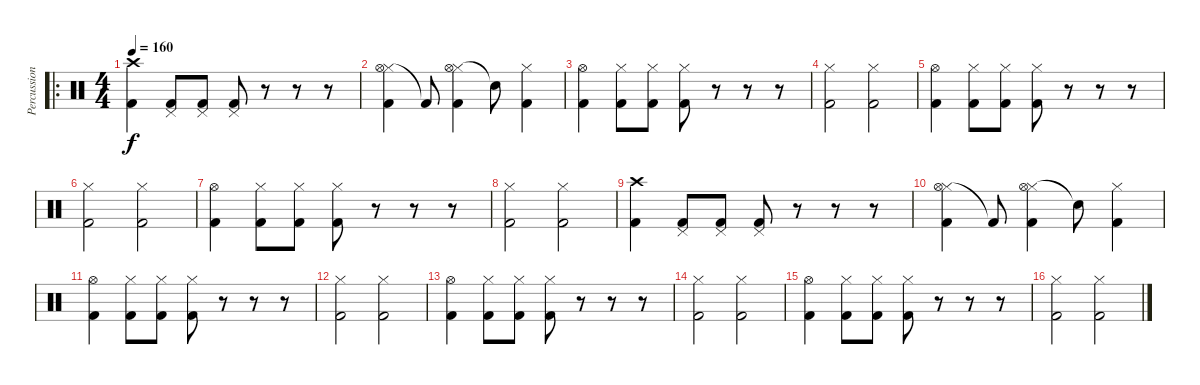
\track ("Percussion" "Percussion") {instrument percussion}
\staff {score}
\articulation defaults
\ro
\ts (4 4)
\tempo 160
\clef neutral
\ks c
("Crash high (hit)" "Kick (hit) 2").4{dy f} ("Pedal Hi-Hat (hit)" "Kick (hit) 2").8 ("Pedal Hi-Hat (hit)" "Kick (hit) 2").8 ("Pedal Hi-Hat (hit)" "Kick (hit) 2").8 r.8 r.8 r.8 |
("Hi-Hat (closed)" "Hi-Hat (open)" "Kick (hit) 2").4 "Kick (hit) 2"{t}.8 ("Hi-Hat (closed)" "Hi-Hat (open)" "Kick (hit) 2").4 "Snare (hit)"{t}.8 ("Hi-Hat (closed)" "Kick (hit) 2").4 |
("Hi-Hat (open)" "Kick (hit) 2").4 ("Hi-Hat (closed)" "Kick (hit) 2").8 ("Hi-Hat (closed)" "Kick (hit) 2").8 ("Hi-Hat (closed)" "Kick (hit) 2").8 r.8 r.8 r.8 |
("Hi-Hat (closed)" "Kick (hit) 2").2 ("Hi-Hat (closed)" "Kick (hit) 2").2 |
("Hi-Hat (open)" "Kick (hit) 2").4 ("Hi-Hat (closed)" "Kick (hit) 2").8 ("Hi-Hat (closed)" "Kick (hit) 2").8 ("Hi-Hat (closed)" "Kick (hit) 2").8 r.8 r.8 r.8 |
("Hi-Hat (closed)" "Kick (hit) 2").2 ("Hi-Hat (closed)" "Kick (hit) 2").2 |
("Hi-Hat (open)" "Kick (hit) 2").4 ("Hi-Hat (closed)" "Kick (hit) 2").8 ("Hi-Hat (closed)" "Kick (hit) 2").8 ("Hi-Hat (closed)" "Kick (hit) 2").8 r.8 r.8 r.8 |
("Hi-Hat (closed)" "Kick (hit) 2").2 ("Hi-Hat (closed)" "Kick (hit) 2").2 |
("Crash high (hit)" "Kick (hit) 2").4 ("Pedal Hi-Hat (hit)" "Kick (hit) 2").8 ("Pedal Hi-Hat (hit)" "Kick (hit) 2").8 ("Pedal Hi-Hat (hit)" "Kick (hit) 2").8 r.8 r.8 r.8 |
("Hi-Hat (closed)" "Hi-Hat (open)" "Kick (hit) 2").4 "Kick (hit) 2"{t}.8 ("Hi-Hat (closed)" "Hi-Hat (open)" "Kick (hit) 2").4 "Snare (hit)"{t}.8 ("Hi-Hat (closed)" "Kick (hit) 2").4 |
("Hi-Hat (open)" "Kick (hit) 2").4 ("Hi-Hat (closed)" "Kick (hit) 2").8 ("Hi-Hat (closed)" "Kick (hit) 2").8 ("Hi-Hat (closed)" "Kick (hit) 2").8 r.8 r.8 r.8 |
("Hi-Hat (closed)" "Kick (hit) 2").2 ("Hi-Hat (closed)" "Kick (hit) 2").2 |
("Hi-Hat (open)" "Kick (hit) 2").4 ("Hi-Hat (closed)" "Kick (hit) 2").8 ("Hi-Hat (closed)" "Kick (hit) 2").8 ("Hi-Hat (closed)" "Kick (hit) 2").8 r.8 r.8 r.8 |
("Hi-Hat (closed)" "Kick (hit) 2").2 ("Hi-Hat (closed)" "Kick (hit) 2").2 |
("Hi-Hat (open)" "Kick (hit) 2").4 ("Hi-Hat (closed)" "Kick (hit) 2").8 ("Hi-Hat (closed)" "Kick (hit) 2").8 ("Hi-Hat (closed)" "Kick (hit) 2").8 r.8 r.8 r.8 |
("Hi-Hat (closed)" "Kick (hit) 2").2 ("Hi-Hat (closed)" "Kick (hit) 2").2
